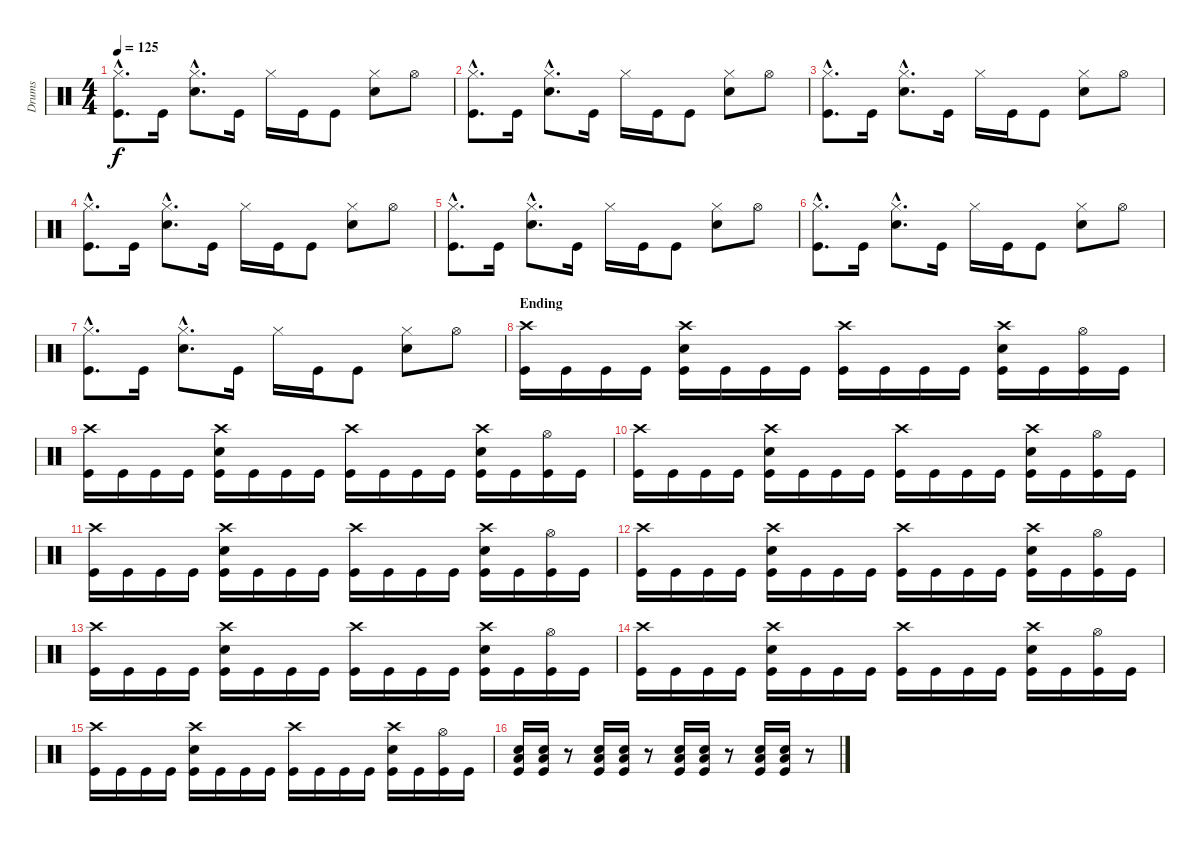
\track ("Drums" "Drums") {instrument percussion}
\staff {score}
\articulation defaults
\ts (4 4)
\tempo 125
\clef neutral
\ks c
("Hi-Hat (closed)"{hac} "Kick (hit)"{hac}).8{d dy f} "Kick (hit)".16 ("Hi-Hat (closed)"{hac} "Electric Snare (hit)"{hac}).8{d} "Kick (hit)".16 "Hi-Hat (closed)".16 "Kick (hit)".16 "Kick (hit)".8 ("Hi-Hat (closed)" "Electric Snare (hit)").8 "Hi-Hat (open)".8 |
("Hi-Hat (closed)"{hac} "Kick (hit)"{hac}).8{d} "Kick (hit)".16 ("Hi-Hat (closed)"{hac} "Electric Snare (hit)"{hac}).8{d} "Kick (hit)".16 "Hi-Hat (closed)".16 "Kick (hit)".16 "Kick (hit)".8 ("Hi-Hat (closed)" "Electric Snare (hit)").8 "Hi-Hat (open)".8 |
("Hi-Hat (closed)"{hac} "Kick (hit)"{hac}).8{d} "Kick (hit)".16 ("Hi-Hat (closed)"{hac} "Electric Snare (hit)"{hac}).8{d} "Kick (hit)".16 "Hi-Hat (closed)".16 "Kick (hit)".16 "Kick (hit)".8 ("Hi-Hat (closed)" "Electric Snare (hit)").8 "Hi-Hat (open)".8 |
("Hi-Hat (closed)"{hac} "Kick (hit)"{hac}).8{d} "Kick (hit)".16 ("Hi-Hat (closed)"{hac} "Electric Snare (hit)"{hac}).8{d} "Kick (hit)".16 "Hi-Hat (closed)".16 "Kick (hit)".16 "Kick (hit)".8 ("Hi-Hat (closed)" "Electric Snare (hit)").8 "Hi-Hat (open)".8 |
("Hi-Hat (closed)"{hac} "Kick (hit)"{hac}).8{d} "Kick (hit)".16 ("Hi-Hat (closed)"{hac} "Electric Snare (hit)"{hac}).8{d} "Kick (hit)".16 "Hi-Hat (closed)".16 "Kick (hit)".16 "Kick (hit)".8 ("Hi-Hat (closed)" "Electric Snare (hit)").8 "Hi-Hat (open)".8 |
("Hi-Hat (closed)"{hac} "Kick (hit)"{hac}).8{d} "Kick (hit)".16 ("Hi-Hat (closed)"{hac} "Electric Snare (hit)"{hac}).8{d} "Kick (hit)".16 "Hi-Hat (closed)".16 "Kick (hit)".16 "Kick (hit)".8 ("Hi-Hat (closed)" "Electric Snare (hit)").8 "Hi-Hat (open)".8 |
("Hi-Hat (closed)"{hac} "Kick (hit)"{hac}).8{d} "Kick (hit)".16 ("Hi-Hat (closed)"{hac} "Electric Snare (hit)"{hac}).8{d} "Kick (hit)".16 "Hi-Hat (closed)".16 "Kick (hit)".16 "Kick (hit)".8 ("Hi-Hat (closed)" "Electric Snare (hit)").8 "Hi-Hat (open)".8 |
\section ("" "Ending")
("Crash high (hit)" "Kick (hit)").16 "Kick (hit)".16 "Kick (hit)".16 "Kick (hit)".16 ("Crash high (hit)" "Kick (hit)" "Electric Snare (hit)").16 "Kick (hit)".16 "Kick (hit)".16 "Kick (hit)".16 ("Crash high (hit)" "Kick (hit)").16 "Kick (hit)".16 "Kick (hit)".16 "Kick (hit)".16 ("Crash high (hit)" "Kick (hit)" "Electric Snare (hit)").16 "Kick (hit)".16 ("Hi-Hat (open)" "Kick (hit)").16 "Kick (hit)".16 |
("Crash high (hit)" "Kick (hit)").16 "Kick (hit)".16 "Kick (hit)".16 "Kick (hit)".16 ("Crash high (hit)" "Kick (hit)" "Electric Snare (hit)").16 "Kick (hit)".16 "Kick (hit)".16 "Kick (hit)".16 ("Crash high (hit)" "Kick (hit)").16 "Kick (hit)".16 "Kick (hit)".16 "Kick (hit)".16 ("Crash high (hit)" "Kick (hit)" "Electric Snare (hit)").16 "Kick (hit)".16 ("Hi-Hat (open)" "Kick (hit)").16 "Kick (hit)".16 |
("Crash high (hit)" "Kick (hit)").16 "Kick (hit)".16 "Kick (hit)".16 "Kick (hit)".16 ("Crash high (hit)" "Kick (hit)" "Electric Snare (hit)").16 "Kick (hit)".16 "Kick (hit)".16 "Kick (hit)".16 ("Crash high (hit)" "Kick (hit)").16 "Kick (hit)".16 "Kick (hit)".16 "Kick (hit)".16 ("Crash high (hit)" "Kick (hit)" "Electric Snare (hit)").16 "Kick (hit)".16 ("Hi-Hat (open)" "Kick (hit)").16 "Kick (hit)".16 |
("Crash high (hit)" "Kick (hit)").16 "Kick (hit)".16 "Kick (hit)".16 "Kick (hit)".16 ("Crash high (hit)" "Kick (hit)" "Electric Snare (hit)").16 "Kick (hit)".16 "Kick (hit)".16 "Kick (hit)".16 ("Crash high (hit)" "Kick (hit)").16 "Kick (hit)".16 "Kick (hit)".16 "Kick (hit)".16 ("Crash high (hit)" "Kick (hit)" "Electric Snare (hit)").16 "Kick (hit)".16 ("Hi-Hat (open)" "Kick (hit)").16 "Kick (hit)".16 |
("Crash high (hit)" "Kick (hit)").16 "Kick (hit)".16 "Kick (hit)".16 "Kick (hit)".16 ("Crash high (hit)" "Kick (hit)" "Electric Snare (hit)").16 "Kick (hit)".16 "Kick (hit)".16 "Kick (hit)".16 ("Crash high (hit)" "Kick (hit)").16 "Kick (hit)".16 "Kick (hit)".16 "Kick (hit)".16 ("Crash high (hit)" "Kick (hit)" "Electric Snare (hit)").16 "Kick (hit)".16 ("Hi-Hat (open)" "Kick (hit)").16 "Kick (hit)".16 |
("Crash high (hit)" "Kick (hit)").16 "Kick (hit)".16 "Kick (hit)".16 "Kick (hit)".16 ("Crash high (hit)" "Kick (hit)" "Electric Snare (hit)").16 "Kick (hit)".16 "Kick (hit)".16 "Kick (hit)".16 ("Crash high (hit)" "Kick (hit)").16 "Kick (hit)".16 "Kick (hit)".16 "Kick (hit)".16 ("Crash high (hit)" "Kick (hit)" "Electric Snare (hit)").16 "Kick (hit)".16 ("Hi-Hat (open)" "Kick (hit)").16 "Kick (hit)".16 |
("Crash high (hit)" "Kick (hit)").16 "Kick (hit)".16 "Kick (hit)".16 "Kick (hit)".16 ("Crash high (hit)" "Kick (hit)" "Electric Snare (hit)").16 "Kick (hit)".16 "Kick (hit)".16 "Kick (hit)".16 ("Crash high (hit)" "Kick (hit)").16 "Kick (hit)".16 "Kick (hit)".16 "Kick (hit)".16 ("Crash high (hit)" "Kick (hit)" "Electric Snare (hit)").16 "Kick (hit)".16 ("Hi-Hat (open)" "Kick (hit)").16 "Kick (hit)".16 |
("Crash high (hit)" "Kick (hit)").16 "Kick (hit)".16 "Kick (hit)".16 "Kick (hit)".16 ("Crash high (hit)" "Kick (hit)" "Electric Snare (hit)").16 "Kick (hit)".16 "Kick (hit)".16 "Kick (hit)".16 ("Crash high (hit)" "Kick (hit)").16 "Kick (hit)".16 "Kick (hit)".16 "Kick (hit)".16 ("Crash high (hit)" "Kick (hit)" "Electric Snare (hit)").16 "Kick (hit)".16 ("Hi-Hat (open)" "Kick (hit)").16 "Kick (hit)".16 |
("Low Floor Tom (hit)" "Kick (hit)" "Electric Snare (hit)").16 ("Low Floor Tom (hit)" "Kick (hit)" "Electric Snare (hit)").16 r.8 ("Low Floor Tom (hit)" "Kick (hit)" "Electric Snare (hit)").16 ("Low Floor Tom (hit)" "Kick (hit)" "Electric Snare (hit)").16 r.8 ("Low Floor Tom (hit)" "Kick (hit)" "Electric Snare (hit)").16 ("Low Floor Tom (hit)" "Kick (hit)" "Electric Snare (hit)").16 r.8 ("Low Floor Tom (hit)" "Kick (hit)" "Electric Snare (hit)").16 ("Low Floor Tom (hit)" "Kick (hit)" "Electric Snare (hit)").16 r.8
